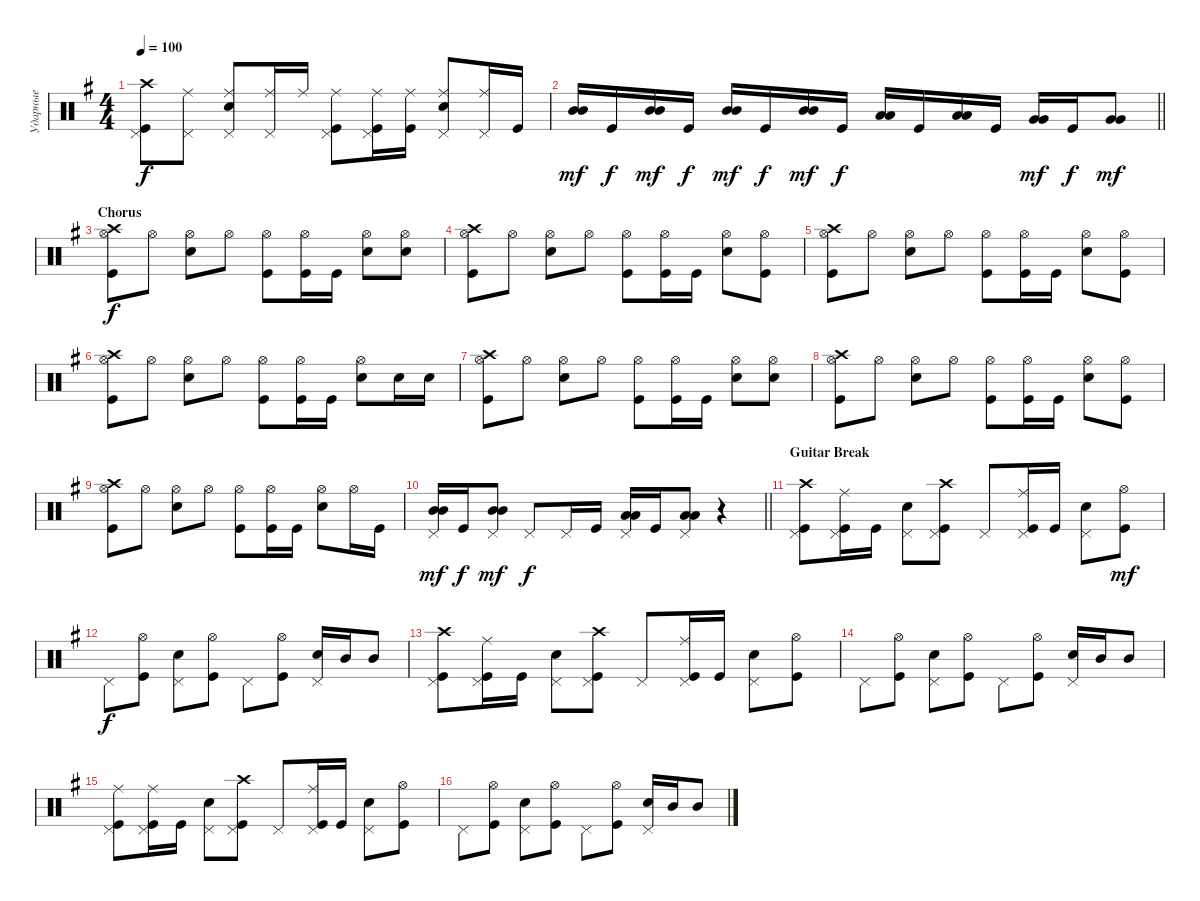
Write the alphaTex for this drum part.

\track ("Ударные" "Ударные") {instrument percussion}
\staff {score}
\articulation defaults
\ts (4 4)
\tempo 100
\clef neutral
\ks eminor
("Crash high (hit)" "Kick (hit)" "Pedal Hi-Hat (hit)").8{dy f} ("Pedal Hi-Hat (hit)" "Ride (middle)").8 ("Ride (middle)" "Snare (hit) 2" "Pedal Hi-Hat (hit)").8 ("Ride (middle)" "Pedal Hi-Hat (hit)").16 "Ride (middle)".16 ("Ride (middle)" "Kick (hit)" "Pedal Hi-Hat (hit)").8 ("Ride (middle)" "Pedal Hi-Hat (hit)" "Kick (hit)").16 ("Ride (middle)" "Kick (hit)").16 ("Ride (middle)" "Snare (hit) 2" "Pedal Hi-Hat (hit)").8 ("Ride (middle)" "Pedal Hi-Hat (hit)").16 "Kick (hit)".16 |
\barLineRight lightlight
("Mid Tom (hit)" "Mid Tom (hit)").16{bd 60 dy mf} "Kick (hit)".16{dy f} ("Mid Tom (hit)" "Mid Tom (hit)").16{bd 120 dy mf} "Kick (hit)".16{dy f} ("Mid Tom (hit)" "Mid Tom (hit)").16{bd 60 dy mf} "Kick (hit)".16{dy f} ("Mid Tom (hit)" "Mid Tom (hit)").16{bd 120 dy mf} "Kick (hit)".16{dy f} ("Low Tom (hit)" "Low Tom (hit)").16{bd 120} "Kick (hit)".16 ("Low Tom (hit)" "Low Tom (hit)").16{bd 120} "Kick (hit)".16 ("Very Low Tom (hit)" "Very Low Tom (hit)").16{bd 120 dy mf} "Kick (hit)".16{dy f} ("Very Low Tom (hit)" "Very Low Tom (hit)").8{bd 120 dy mf} |
\section ("" "Chorus")
("Hi-Hat (open)" "Crash high (hit)" "Kick (hit)").8{dy f} "Hi-Hat (open)".8 ("Hi-Hat (open)" "Snare (hit) 2").8 "Hi-Hat (open)".8 ("Hi-Hat (open)" "Kick (hit)").8 ("Hi-Hat (open)" "Kick (hit)").16 "Kick (hit)".16 ("Hi-Hat (open)" "Snare (hit) 2").8 ("Hi-Hat (open)" "Snare (hit) 2").8 |
("Hi-Hat (open)" "Crash high (hit)" "Kick (hit)").8 "Hi-Hat (open)".8 ("Hi-Hat (open)" "Snare (hit) 2").8 "Hi-Hat (open)".8 ("Hi-Hat (open)" "Kick (hit)").8 ("Hi-Hat (open)" "Kick (hit)").16 "Kick (hit)".16 ("Hi-Hat (open)" "Snare (hit) 2").8 ("Hi-Hat (open)" "Kick (hit)").8 |
("Hi-Hat (open)" "Crash high (hit)" "Kick (hit)").8 "Hi-Hat (open)".8 ("Hi-Hat (open)" "Snare (hit) 2").8 "Hi-Hat (open)".8 ("Hi-Hat (open)" "Kick (hit)").8 ("Hi-Hat (open)" "Kick (hit)").16 "Kick (hit)".16 ("Hi-Hat (open)" "Snare (hit) 2").8 ("Hi-Hat (open)" "Kick (hit)").8 |
("Hi-Hat (open)" "Crash high (hit)" "Kick (hit)").8 "Hi-Hat (open)".8 ("Hi-Hat (open)" "Snare (hit) 2").8 "Hi-Hat (open)".8 ("Hi-Hat (open)" "Kick (hit)").8 ("Hi-Hat (open)" "Kick (hit)").16 "Kick (hit)".16 ("Hi-Hat (open)" "Snare (hit) 2").8 "Snare (hit) 2".16 "Snare (hit) 2".16 |
("Hi-Hat (open)" "Crash high (hit)" "Kick (hit)").8 "Hi-Hat (open)".8 ("Hi-Hat (open)" "Snare (hit) 2").8 "Hi-Hat (open)".8 ("Hi-Hat (open)" "Kick (hit)").8 ("Hi-Hat (open)" "Kick (hit)").16 "Kick (hit)".16 ("Hi-Hat (open)" "Snare (hit) 2").8 ("Hi-Hat (open)" "Snare (hit) 2").8 |
("Hi-Hat (open)" "Crash high (hit)" "Kick (hit)").8 "Hi-Hat (open)".8 ("Hi-Hat (open)" "Snare (hit) 2").8 "Hi-Hat (open)".8 ("Hi-Hat (open)" "Kick (hit)").8 ("Hi-Hat (open)" "Kick (hit)").16 "Kick (hit)".16 ("Hi-Hat (open)" "Snare (hit) 2").8 ("Hi-Hat (open)" "Kick (hit)").8 |
("Hi-Hat (open)" "Crash high (hit)" "Kick (hit)").8 "Hi-Hat (open)".8 ("Hi-Hat (open)" "Snare (hit) 2").8 "Hi-Hat (open)".8 ("Hi-Hat (open)" "Kick (hit)").8 ("Hi-Hat (open)" "Kick (hit)").16 "Kick (hit)".16 ("Hi-Hat (open)" "Snare (hit) 2").8 "Hi-Hat (open)".16 "Kick (hit)".16 |
\barLineRight lightlight
("Mid Tom (hit)" "Mid Tom (hit)" "Pedal Hi-Hat (hit)").16{bd 120 dy mf} "Kick (hit)".16{dy f} ("Pedal Hi-Hat (hit)" "Mid Tom (hit)" "Mid Tom (hit)").8{bd 120 dy mf} "Pedal Hi-Hat (hit)".8{dy f} "Pedal Hi-Hat (hit)".16 "Kick (hit)".16 ("Low Tom (hit)" "Low Tom (hit)" "Pedal Hi-Hat (hit)").16{bd 120} "Kick (hit)".16 ("Low Tom (hit)" "Low Tom (hit)" "Pedal Hi-Hat (hit)").8{bd 120} r.4 |
\section ("" "Guitar Break")
("Kick (hit)" "Crash high (hit)" "Pedal Hi-Hat (hit)").8 ("Kick (hit)" "Pedal Hi-Hat (hit)" "Ride (middle)").16 "Kick (hit)".16 ("Snare (hit) 2" "Pedal Hi-Hat (hit)").8 ("Kick (hit)" "Crash high (hit)" "Pedal Hi-Hat (hit)").8 "Pedal Hi-Hat (hit)".8 ("Kick (hit)" "Ride (middle)" "Pedal Hi-Hat (hit)").16 "Kick (hit)".16 ("Snare (hit) 2" "Pedal Hi-Hat (hit)").8 ("Kick (hit)" "Hi-Hat (open)").8{dy mf} |
"Pedal Hi-Hat (hit)".8{dy f} ("Kick (hit)" "Hi-Hat (open)").8 ("Snare (hit) 2" "Pedal Hi-Hat (hit)").8 ("Kick (hit)" "Hi-Hat (open)").8 "Pedal Hi-Hat (hit)".8 ("Hi-Hat (open)" "Kick (hit)").8 ("Pedal Hi-Hat (hit)" "Snare (hit) 2").16 "Mid Tom (hit)".16 "Mid Tom (hit)".8 |
("Kick (hit)" "Crash high (hit)" "Pedal Hi-Hat (hit)").8 ("Kick (hit)" "Pedal Hi-Hat (hit)" "Ride (middle)").16 "Kick (hit)".16 ("Snare (hit) 2" "Pedal Hi-Hat (hit)").8 ("Kick (hit)" "Crash high (hit)" "Pedal Hi-Hat (hit)").8 "Pedal Hi-Hat (hit)".8 ("Kick (hit)" "Ride (middle)" "Pedal Hi-Hat (hit)").16 "Kick (hit)".16 ("Snare (hit) 2" "Pedal Hi-Hat (hit)").8 ("Kick (hit)" "Hi-Hat (open)").8 |
"Pedal Hi-Hat (hit)".8 ("Kick (hit)" "Hi-Hat (open)").8 ("Snare (hit) 2" "Pedal Hi-Hat (hit)").8 ("Kick (hit)" "Hi-Hat (open)").8 "Pedal Hi-Hat (hit)".8 ("Hi-Hat (open)" "Kick (hit)").8 ("Pedal Hi-Hat (hit)" "Snare (hit) 2").16 "Mid Tom (hit)".16 "Mid Tom (hit)".8 |
("Kick (hit)" "Ride (middle)" "Pedal Hi-Hat (hit)").8 ("Kick (hit)" "Pedal Hi-Hat (hit)" "Ride (middle)").16 "Kick (hit)".16 ("Snare (hit) 2" "Pedal Hi-Hat (hit)").8 ("Kick (hit)" "Crash high (hit)" "Pedal Hi-Hat (hit)").8 "Pedal Hi-Hat (hit)".8 ("Kick (hit)" "Ride (middle)" "Pedal Hi-Hat (hit)").16 "Kick (hit)".16 ("Snare (hit) 2" "Pedal Hi-Hat (hit)").8 ("Kick (hit)" "Hi-Hat (open)").8 |
"Pedal Hi-Hat (hit)".8 ("Kick (hit)" "Hi-Hat (open)").8 ("Snare (hit) 2" "Pedal Hi-Hat (hit)").8 ("Kick (hit)" "Hi-Hat (open)").8 "Pedal Hi-Hat (hit)".8 ("Hi-Hat (open)" "Kick (hit)").8 ("Pedal Hi-Hat (hit)" "Snare (hit) 2").16 "Mid Tom (hit)".16 "Mid Tom (hit)".8
